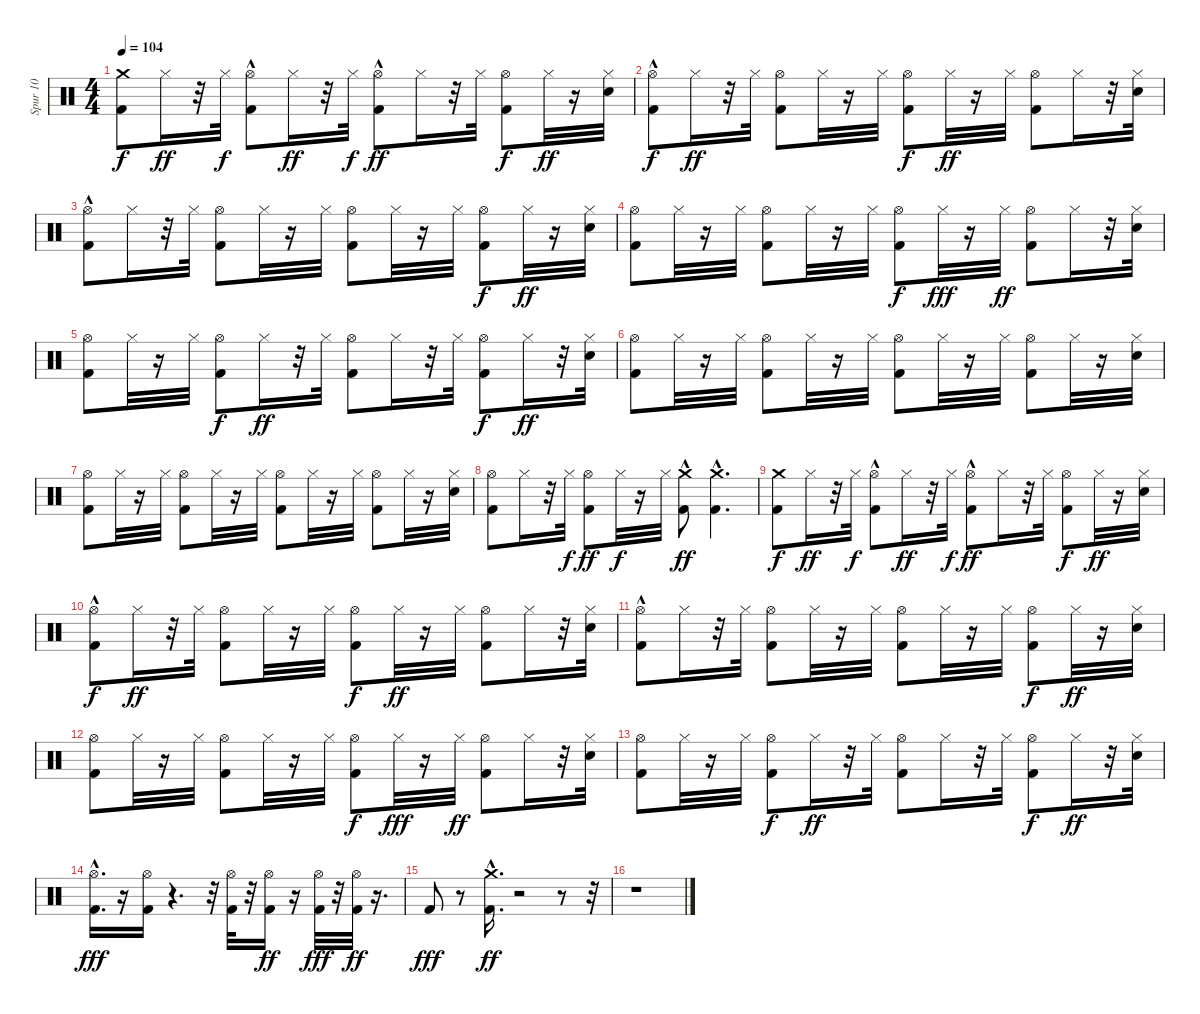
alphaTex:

\track ("Spur 10" "Spur 10") {instrument percussion}
\staff {score}
\articulation defaults
\ts (4 4)
\tempo 104
\clef neutral
\ks c
("Kick (hit) 2" "Crash medium (hit)").8{dy f} "Hi-Hat (closed)".16{dy ff} r.32 "Hi-Hat (closed)".32{dy f} ("Kick (hit) 2" "Hi-Hat (open)"{hac}).8 "Hi-Hat (closed)".16{dy ff} r.32 "Hi-Hat (closed)".32{dy f} ("Kick (hit) 2" "Hi-Hat (open)"{hac}).8{dy ff} "Hi-Hat (closed)".16 r.32 "Hi-Hat (closed)".32 ("Kick (hit) 2" "Hi-Hat (open)").8{dy f} "Hi-Hat (closed)".32{dy ff} r.16 ("Electric Snare (hit)" "Hi-Hat (closed)").32 |
("Kick (hit) 2" "Hi-Hat (open)"{hac}).8{dy f} "Hi-Hat (closed)".16{dy ff} r.32 "Hi-Hat (closed)".32 ("Kick (hit) 2" "Hi-Hat (open)").8 "Hi-Hat (closed)".32 r.16 "Hi-Hat (closed)".32 ("Kick (hit) 2" "Hi-Hat (open)").8{dy f} "Hi-Hat (closed)".32{dy ff} r.16 "Hi-Hat (closed)".32 ("Kick (hit) 2" "Hi-Hat (open)").8 "Hi-Hat (closed)".16 r.32 ("Electric Snare (hit)" "Hi-Hat (closed)").32 |
("Kick (hit) 2" "Hi-Hat (open)"{hac}).8 "Hi-Hat (closed)".16 r.32 "Hi-Hat (closed)".32 ("Kick (hit) 2" "Hi-Hat (open)").8 "Hi-Hat (closed)".32 r.16 "Hi-Hat (closed)".32 ("Kick (hit) 2" "Hi-Hat (open)").8 "Hi-Hat (closed)".32 r.16 "Hi-Hat (closed)".32 ("Kick (hit) 2" "Hi-Hat (open)").8{dy f} "Hi-Hat (closed)".32{dy ff} r.16 ("Electric Snare (hit)" "Hi-Hat (closed)").32 |
("Kick (hit) 2" "Hi-Hat (open)").8 "Hi-Hat (closed)".32 r.16 "Hi-Hat (closed)".32 ("Kick (hit) 2" "Hi-Hat (open)").8 "Hi-Hat (closed)".32 r.16 "Hi-Hat (closed)".32 ("Kick (hit) 2" "Hi-Hat (open)").8{dy f} "Hi-Hat (closed)".32{dy fff} r.16 "Hi-Hat (closed)".32{dy ff} ("Kick (hit) 2" "Hi-Hat (open)").8 "Hi-Hat (closed)".16 r.32 ("Electric Snare (hit)" "Hi-Hat (closed)").32 |
("Kick (hit) 2" "Hi-Hat (open)").8 "Hi-Hat (closed)".32 r.16 "Hi-Hat (closed)".32 ("Kick (hit) 2" "Hi-Hat (open)").8{dy f} "Hi-Hat (closed)".16{dy ff} r.32 "Hi-Hat (closed)".32 ("Kick (hit) 2" "Hi-Hat (open)").8 "Hi-Hat (closed)".16 r.32 "Hi-Hat (closed)".32 ("Kick (hit) 2" "Hi-Hat (open)").8{dy f} "Hi-Hat (closed)".16{dy ff} r.32 ("Electric Snare (hit)" "Hi-Hat (closed)").32 |
("Kick (hit) 2" "Hi-Hat (open)").8 "Hi-Hat (closed)".32 r.16 "Hi-Hat (closed)".32 ("Kick (hit) 2" "Hi-Hat (open)").8 "Hi-Hat (closed)".32 r.16 "Hi-Hat (closed)".32 ("Kick (hit) 2" "Hi-Hat (open)").8 "Hi-Hat (closed)".32 r.16 "Hi-Hat (closed)".32 ("Kick (hit) 2" "Hi-Hat (open)").8 "Hi-Hat (closed)".32 r.16 ("Electric Snare (hit)" "Hi-Hat (closed)").32 |
("Kick (hit) 2" "Hi-Hat (open)").8 "Hi-Hat (closed)".32 r.16 "Hi-Hat (closed)".32 ("Kick (hit) 2" "Hi-Hat (open)").8 "Hi-Hat (closed)".32 r.16 "Hi-Hat (closed)".32 ("Kick (hit) 2" "Hi-Hat (open)").8 "Hi-Hat (closed)".32 r.16 "Hi-Hat (closed)".32 ("Kick (hit) 2" "Hi-Hat (open)").8 "Hi-Hat (closed)".32 r.16 ("Electric Snare (hit)" "Hi-Hat (closed)").32 |
("Kick (hit) 2" "Hi-Hat (open)").8 "Hi-Hat (closed)".16 r.32 "Hi-Hat (closed)".32{dy f} ("Kick (hit) 2" "Hi-Hat (open)").8{dy ff} "Hi-Hat (closed)".32{dy f} r.16 "Hi-Hat (closed)".32 ("Crash medium (hit)"{hac} "Kick (hit) 2").8{dy ff} ("Crash medium (hit)"{hac} "Kick (hit) 2").4{d} |
("Kick (hit) 2" "Crash medium (hit)").8{dy f} "Hi-Hat (closed)".16{dy ff} r.32 "Hi-Hat (closed)".32{dy f} ("Kick (hit) 2" "Hi-Hat (open)"{hac}).8 "Hi-Hat (closed)".16{dy ff} r.32 "Hi-Hat (closed)".32{dy f} ("Kick (hit) 2" "Hi-Hat (open)"{hac}).8{dy ff} "Hi-Hat (closed)".16 r.32 "Hi-Hat (closed)".32 ("Kick (hit) 2" "Hi-Hat (open)").8{dy f} "Hi-Hat (closed)".32{dy ff} r.16 ("Electric Snare (hit)" "Hi-Hat (closed)").32 |
("Kick (hit) 2" "Hi-Hat (open)"{hac}).8{dy f} "Hi-Hat (closed)".16{dy ff} r.32 "Hi-Hat (closed)".32 ("Kick (hit) 2" "Hi-Hat (open)").8 "Hi-Hat (closed)".32 r.16 "Hi-Hat (closed)".32 ("Kick (hit) 2" "Hi-Hat (open)").8{dy f} "Hi-Hat (closed)".32{dy ff} r.16 "Hi-Hat (closed)".32 ("Kick (hit) 2" "Hi-Hat (open)").8 "Hi-Hat (closed)".16 r.32 ("Electric Snare (hit)" "Hi-Hat (closed)").32 |
("Kick (hit) 2" "Hi-Hat (open)"{hac}).8 "Hi-Hat (closed)".16 r.32 "Hi-Hat (closed)".32 ("Kick (hit) 2" "Hi-Hat (open)").8 "Hi-Hat (closed)".32 r.16 "Hi-Hat (closed)".32 ("Kick (hit) 2" "Hi-Hat (open)").8 "Hi-Hat (closed)".32 r.16 "Hi-Hat (closed)".32 ("Kick (hit) 2" "Hi-Hat (open)").8{dy f} "Hi-Hat (closed)".32{dy ff} r.16 ("Electric Snare (hit)" "Hi-Hat (closed)").32 |
("Kick (hit) 2" "Hi-Hat (open)").8 "Hi-Hat (closed)".32 r.16 "Hi-Hat (closed)".32 ("Kick (hit) 2" "Hi-Hat (open)").8 "Hi-Hat (closed)".32 r.16 "Hi-Hat (closed)".32 ("Kick (hit) 2" "Hi-Hat (open)").8{dy f} "Hi-Hat (closed)".32{dy fff} r.16 "Hi-Hat (closed)".32{dy ff} ("Kick (hit) 2" "Hi-Hat (open)").8 "Hi-Hat (closed)".16 r.32 ("Electric Snare (hit)" "Hi-Hat (closed)").32 |
("Kick (hit) 2" "Hi-Hat (open)").8 "Hi-Hat (closed)".32 r.16 "Hi-Hat (closed)".32 ("Kick (hit) 2" "Hi-Hat (open)").8{dy f} "Hi-Hat (closed)".16{dy ff} r.32 "Hi-Hat (closed)".32 ("Kick (hit) 2" "Hi-Hat (open)").8 "Hi-Hat (closed)".16 r.32 "Hi-Hat (closed)".32 ("Kick (hit) 2" "Hi-Hat (open)").8{dy f} "Hi-Hat (closed)".16{dy ff} r.32 ("Electric Snare (hit)" "Hi-Hat (closed)").32 |
("Kick (hit) 2"{hac} "Hi-Hat (open)"{hac}).16{d dy fff} r.16 ("Kick (hit) 2" "Hi-Hat (open)").16 r.4{d} r.32 ("Kick (hit) 2" "Hi-Hat (open)").32 r.32 ("Hi-Hat (open)" "Kick (hit) 2").16{dy ff} r.16 ("Hi-Hat (open)" "Kick (hit) 2").32{dy fff} r.32 ("Hi-Hat (open)" "Kick (hit) 2").32{dy ff} r.16{d} |
"Kick (hit) 2".8{dy fff} r.8 ("Crash medium (hit)"{hac} "Kick (hit) 2"{hac}).16{d dy ff} r.2 r.8 r.32 |
r.1
